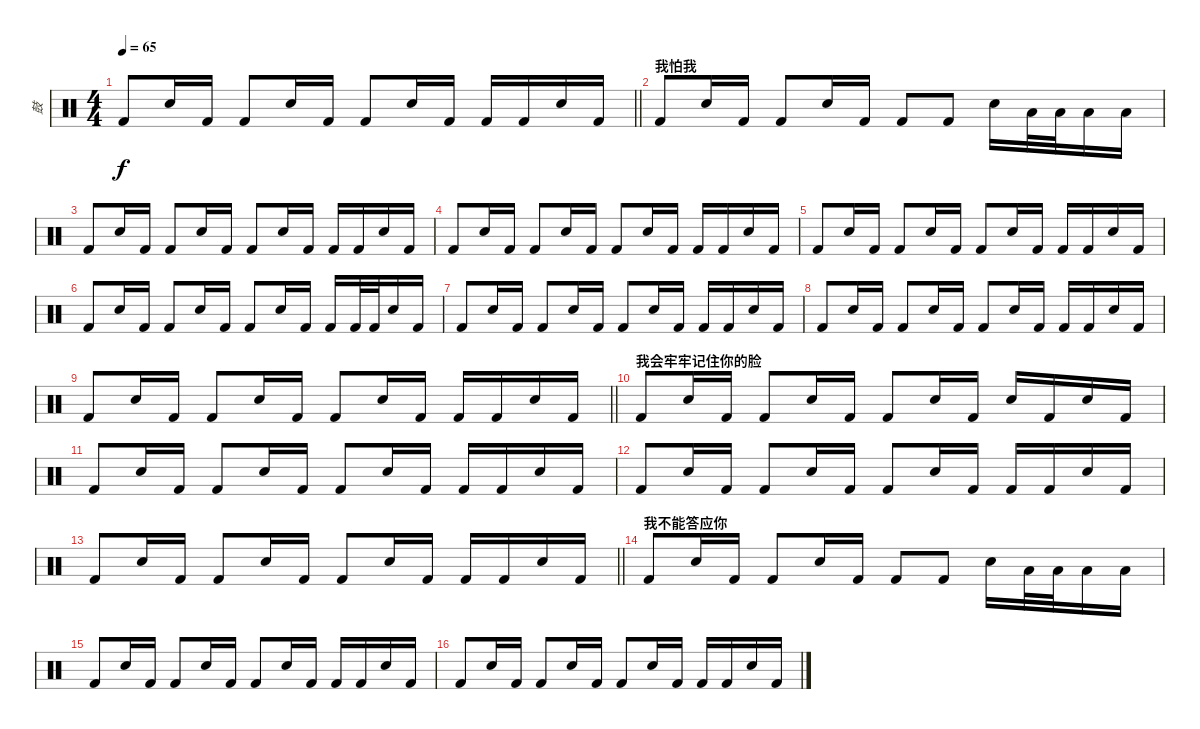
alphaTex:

\track ("鼓" "鼓") {instrument percussion}
\staff {score}
\articulation defaults
\ts (4 4)
\tempo 65
\clef neutral
\barLineRight lightlight
\ks c "Kick (hit) 2".8{dy f} "Snare (hit) 2".16 "Kick (hit) 2".16 "Kick (hit) 2".8 "Snare (hit) 2".16 "Kick (hit) 2".16 "Kick (hit) 2".8 "Snare (hit) 2".16 "Kick (hit) 2".16 "Kick (hit) 2".16 "Kick (hit) 2".16 "Snare (hit) 2".16 "Kick (hit) 2".16
|
\section ("" "我怕我")
"Kick (hit) 2".8 "Snare (hit) 2".16 "Kick (hit) 2".16 "Kick (hit) 2".8 "Snare (hit) 2".16 "Kick (hit) 2".16 "Kick (hit) 2".8 "Kick (hit) 2".8 "Snare (hit) 2".16 "Low Tom (hit)".32 "Low Tom (hit)".32 "Low Floor Tom (hit)".16 "Low Floor Tom (hit)".16 |
"Kick (hit) 2".8 "Snare (hit) 2".16 "Kick (hit) 2".16 "Kick (hit) 2".8 "Snare (hit) 2".16 "Kick (hit) 2".16 "Kick (hit) 2".8 "Snare (hit) 2".16 "Kick (hit) 2".16 "Kick (hit) 2".16 "Kick (hit) 2".16 "Snare (hit) 2".16 "Kick (hit) 2".16 |
"Kick (hit) 2".8 "Snare (hit) 2".16 "Kick (hit) 2".16 "Kick (hit) 2".8 "Snare (hit) 2".16 "Kick (hit) 2".16 "Kick (hit) 2".8 "Snare (hit) 2".16 "Kick (hit) 2".16 "Kick (hit) 2".16 "Kick (hit) 2".16 "Snare (hit) 2".16 "Kick (hit) 2".16 |
"Kick (hit) 2".8 "Snare (hit) 2".16 "Kick (hit) 2".16 "Kick (hit) 2".8 "Snare (hit) 2".16 "Kick (hit) 2".16 "Kick (hit) 2".8 "Snare (hit) 2".16 "Kick (hit) 2".16 "Kick (hit) 2".16 "Kick (hit) 2".16 "Snare (hit) 2".16 "Kick (hit) 2".16 |
"Kick (hit) 2".8 "Snare (hit) 2".16 "Kick (hit) 2".16 "Kick (hit) 2".8 "Snare (hit) 2".16 "Kick (hit) 2".16 "Kick (hit) 2".8 "Snare (hit) 2".16 "Kick (hit) 2".16 "Kick (hit) 2".16 "Kick (hit) 2".32 "Kick (hit) 2".32 "Snare (hit) 2".16 "Kick (hit) 2".16 |
"Kick (hit) 2".8 "Snare (hit) 2".16 "Kick (hit) 2".16 "Kick (hit) 2".8 "Snare (hit) 2".16 "Kick (hit) 2".16 "Kick (hit) 2".8 "Snare (hit) 2".16 "Kick (hit) 2".16 "Kick (hit) 2".16 "Kick (hit) 2".16 "Snare (hit) 2".16 "Kick (hit) 2".16 |
"Kick (hit) 2".8 "Snare (hit) 2".16 "Kick (hit) 2".16 "Kick (hit) 2".8 "Snare (hit) 2".16 "Kick (hit) 2".16 "Kick (hit) 2".8 "Snare (hit) 2".16 "Kick (hit) 2".16 "Kick (hit) 2".16 "Kick (hit) 2".16 "Snare (hit) 2".16 "Kick (hit) 2".16 |
\barLineRight lightlight "Kick (hit) 2".8 "Snare (hit) 2".16 "Kick (hit) 2".16 "Kick (hit) 2".8 "Snare (hit) 2".16 "Kick (hit) 2".16 "Kick (hit) 2".8 "Snare (hit) 2".16 "Kick (hit) 2".16 "Kick (hit) 2".16 "Kick (hit) 2".16 "Snare (hit) 2".16 "Kick (hit) 2".16
|
\section ("" "我会牢牢记住你的脸")
"Kick (hit) 2".8 "Snare (hit) 2".16 "Kick (hit) 2".16 "Kick (hit) 2".8 "Snare (hit) 2".16 "Kick (hit) 2".16 "Kick (hit) 2".8 "Snare (hit) 2".16 "Kick (hit) 2".16 "Snare (hit) 2".16 "Kick (hit) 2".16 "Snare (hit) 2".16 "Kick (hit) 2".16 |
"Kick (hit) 2".8 "Snare (hit) 2".16 "Kick (hit) 2".16 "Kick (hit) 2".8 "Snare (hit) 2".16 "Kick (hit) 2".16 "Kick (hit) 2".8 "Snare (hit) 2".16 "Kick (hit) 2".16 "Kick (hit) 2".16 "Kick (hit) 2".16 "Snare (hit) 2".16 "Kick (hit) 2".16 |
"Kick (hit) 2".8 "Snare (hit) 2".16 "Kick (hit) 2".16 "Kick (hit) 2".8 "Snare (hit) 2".16 "Kick (hit) 2".16 "Kick (hit) 2".8 "Snare (hit) 2".16 "Kick (hit) 2".16 "Kick (hit) 2".16 "Kick (hit) 2".16 "Snare (hit) 2".16 "Kick (hit) 2".16 |
\barLineRight lightlight "Kick (hit) 2".8 "Snare (hit) 2".16 "Kick (hit) 2".16 "Kick (hit) 2".8 "Snare (hit) 2".16 "Kick (hit) 2".16 "Kick (hit) 2".8 "Snare (hit) 2".16 "Kick (hit) 2".16 "Kick (hit) 2".16 "Kick (hit) 2".16 "Snare (hit) 2".16 "Kick (hit) 2".16
|
\section ("" "我不能答应你")
"Kick (hit) 2".8 "Snare (hit) 2".16 "Kick (hit) 2".16 "Kick (hit) 2".8 "Snare (hit) 2".16 "Kick (hit) 2".16 "Kick (hit) 2".8 "Kick (hit) 2".8 "Snare (hit) 2".16 "Low Tom (hit)".32 "Low Tom (hit)".32 "Low Floor Tom (hit)".16 "Low Floor Tom (hit)".16 |
"Kick (hit) 2".8 "Snare (hit) 2".16 "Kick (hit) 2".16 "Kick (hit) 2".8 "Snare (hit) 2".16 "Kick (hit) 2".16 "Kick (hit) 2".8 "Snare (hit) 2".16 "Kick (hit) 2".16 "Kick (hit) 2".16 "Kick (hit) 2".16 "Snare (hit) 2".16 "Kick (hit) 2".16 |
"Kick (hit) 2".8 "Snare (hit) 2".16 "Kick (hit) 2".16 "Kick (hit) 2".8 "Snare (hit) 2".16 "Kick (hit) 2".16 "Kick (hit) 2".8 "Snare (hit) 2".16 "Kick (hit) 2".16 "Kick (hit) 2".16 "Kick (hit) 2".16 "Snare (hit) 2".16 "Kick (hit) 2".16
